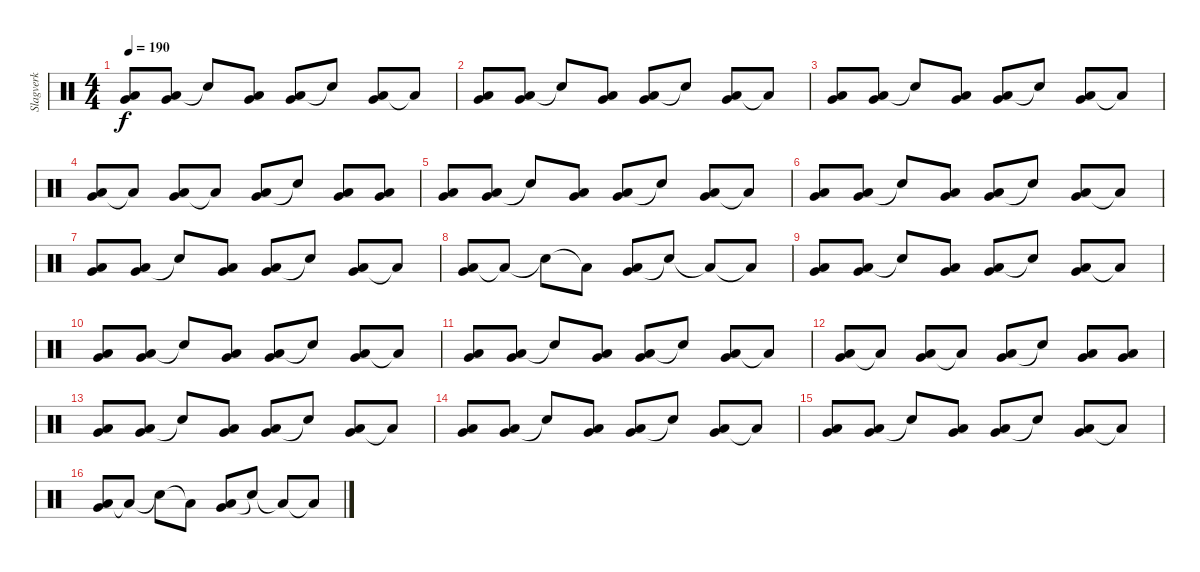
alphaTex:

\track ("Slagverk" "Slagverk") {instrument percussion}
\staff {score}
\articulation defaults
\ts (4 4)
\tempo 190
\clef neutral
\ks c
("Low Tom (hit)" "Very Low Tom (hit)").8{bu 60 dy f} ("Low Tom (hit)" "Very Low Tom (hit)").8{bu 60} "Snare (hit)"{t}.8 ("Low Tom (hit)" "Very Low Tom (hit)").8{bu 60} ("Low Tom (hit)" "Very Low Tom (hit)").8{bu 60} "Snare (hit)"{t}.8 ("Low Tom (hit)" "Very Low Tom (hit)").8{bu 60} "Low Floor Tom (hit)"{t}.8 |
("Low Tom (hit)" "Very Low Tom (hit)").8{bu 60} ("Low Tom (hit)" "Very Low Tom (hit)").8{bu 60} "Snare (hit)"{t}.8 ("Low Tom (hit)" "Very Low Tom (hit)").8{bu 60} ("Low Tom (hit)" "Very Low Tom (hit)").8{bu 60} "Snare (hit)"{t}.8 ("Low Tom (hit)" "Very Low Tom (hit)").8{bu 60} "Low Floor Tom (hit)"{t}.8 |
("Low Tom (hit)" "Very Low Tom (hit)").8{bu 60} ("Low Tom (hit)" "Very Low Tom (hit)").8{bu 60} "Snare (hit)"{t}.8 ("Low Tom (hit)" "Very Low Tom (hit)").8{bu 60} ("Low Tom (hit)" "Very Low Tom (hit)").8{bu 60} "Snare (hit)"{t}.8 ("Low Tom (hit)" "Very Low Tom (hit)").8{bu 60} "Low Floor Tom (hit)"{t}.8 |
("Very Low Tom (hit)" "Low Floor Tom (hit)").8{bu 60} "Low Floor Tom (hit)"{t}.8 ("Very Low Tom (hit)" "Low Floor Tom (hit)").8{bu 120} "Low Floor Tom (hit)"{t}.8 ("Very Low Tom (hit)" "Low Floor Tom (hit)").8{bu 60} "Snare (hit)"{t}.8 ("Very Low Tom (hit)" "Low Floor Tom (hit)").8{bu 60} ("Very Low Tom (hit)" "Low Floor Tom (hit)").8{bu 60} |
("Very Low Tom (hit)" "Low Floor Tom (hit)").8{bu 60} ("Very Low Tom (hit)" "Low Floor Tom (hit)").8{bu 60} "Snare (hit)"{t}.8 ("Very Low Tom (hit)" "Low Floor Tom (hit)").8{bu 60} ("Very Low Tom (hit)" "Low Floor Tom (hit)").8{bu 60} "Snare (hit)"{t}.8 ("Very Low Tom (hit)" "Low Floor Tom (hit)").8{bu 60} "Low Floor Tom (hit)"{t}.8 |
("Very Low Tom (hit)" "Low Floor Tom (hit)").8{bu 60} ("Very Low Tom (hit)" "Low Floor Tom (hit)").8{bu 60} "Snare (hit)"{t}.8 ("Very Low Tom (hit)" "Low Floor Tom (hit)").8{bu 60} ("Very Low Tom (hit)" "Low Floor Tom (hit)").8{bu 60} "Snare (hit)"{t}.8 ("Very Low Tom (hit)" "Low Floor Tom (hit)").8{bu 60} "Low Floor Tom (hit)"{t}.8 |
("Very Low Tom (hit)" "Low Floor Tom (hit)").8{bu 60} ("Very Low Tom (hit)" "Low Floor Tom (hit)").8{bu 60} "Snare (hit)"{t}.8 ("Very Low Tom (hit)" "Low Floor Tom (hit)").8{bu 60} ("Very Low Tom (hit)" "Low Floor Tom (hit)").8{bu 60} "Snare (hit)"{t}.8 ("Very Low Tom (hit)" "Low Floor Tom (hit)").8{bu 60} "Low Floor Tom (hit)"{t}.8 |
("Low Floor Tom (hit)" "Very Low Tom (hit)").8{bu 120} "Low Floor Tom (hit)"{t}.8 "Snare (hit)"{t}.8 "Low Floor Tom (hit)"{t}.8 ("Very Low Tom (hit)" "Low Tom (hit)").8{bu 240} "Snare (hit)"{t}.8 "Low Floor Tom (hit)"{t}.8 "Low Floor Tom (hit)"{t}.8 |
("Low Tom (hit)" "Very Low Tom (hit)").8{bu 60} ("Low Tom (hit)" "Very Low Tom (hit)").8{bu 60} "Snare (hit)"{t}.8 ("Low Tom (hit)" "Very Low Tom (hit)").8{bu 60} ("Low Tom (hit)" "Very Low Tom (hit)").8{bu 60} "Snare (hit)"{t}.8 ("Low Tom (hit)" "Very Low Tom (hit)").8{bu 60} "Low Floor Tom (hit)"{t}.8 |
("Low Tom (hit)" "Very Low Tom (hit)").8{bu 60} ("Low Tom (hit)" "Very Low Tom (hit)").8{bu 60} "Snare (hit)"{t}.8 ("Low Tom (hit)" "Very Low Tom (hit)").8{bu 60} ("Low Tom (hit)" "Very Low Tom (hit)").8{bu 60} "Snare (hit)"{t}.8 ("Low Tom (hit)" "Very Low Tom (hit)").8{bu 60} "Low Floor Tom (hit)"{t}.8 |
("Low Tom (hit)" "Very Low Tom (hit)").8{bu 60} ("Low Tom (hit)" "Very Low Tom (hit)").8{bu 60} "Snare (hit)"{t}.8 ("Low Tom (hit)" "Very Low Tom (hit)").8{bu 60} ("Low Tom (hit)" "Very Low Tom (hit)").8{bu 60} "Snare (hit)"{t}.8 ("Low Tom (hit)" "Very Low Tom (hit)").8{bu 60} "Low Floor Tom (hit)"{t}.8 |
("Very Low Tom (hit)" "Low Floor Tom (hit)").8{bu 60} "Low Floor Tom (hit)"{t}.8 ("Very Low Tom (hit)" "Low Floor Tom (hit)").8{bu 120} "Low Floor Tom (hit)"{t}.8 ("Very Low Tom (hit)" "Low Floor Tom (hit)").8{bu 60} "Snare (hit)"{t}.8 ("Very Low Tom (hit)" "Low Floor Tom (hit)").8{bu 60} ("Very Low Tom (hit)" "Low Floor Tom (hit)").8{bu 60} |
("Very Low Tom (hit)" "Low Floor Tom (hit)").8{bu 60} ("Very Low Tom (hit)" "Low Floor Tom (hit)").8{bu 60} "Snare (hit)"{t}.8 ("Very Low Tom (hit)" "Low Floor Tom (hit)").8{bu 60} ("Very Low Tom (hit)" "Low Floor Tom (hit)").8{bu 60} "Snare (hit)"{t}.8 ("Very Low Tom (hit)" "Low Floor Tom (hit)").8{bu 60} "Low Floor Tom (hit)"{t}.8 |
("Very Low Tom (hit)" "Low Floor Tom (hit)").8{bu 60} ("Very Low Tom (hit)" "Low Floor Tom (hit)").8{bu 60} "Snare (hit)"{t}.8 ("Very Low Tom (hit)" "Low Floor Tom (hit)").8{bu 60} ("Very Low Tom (hit)" "Low Floor Tom (hit)").8{bu 60} "Snare (hit)"{t}.8 ("Very Low Tom (hit)" "Low Floor Tom (hit)").8{bu 60} "Low Floor Tom (hit)"{t}.8 |
("Very Low Tom (hit)" "Low Floor Tom (hit)").8{bu 60} ("Very Low Tom (hit)" "Low Floor Tom (hit)").8{bu 60} "Snare (hit)"{t}.8 ("Very Low Tom (hit)" "Low Floor Tom (hit)").8{bu 60} ("Very Low Tom (hit)" "Low Floor Tom (hit)").8{bu 60} "Snare (hit)"{t}.8 ("Very Low Tom (hit)" "Low Floor Tom (hit)").8{bu 60} "Low Floor Tom (hit)"{t}.8 |
("Low Floor Tom (hit)" "Very Low Tom (hit)").8{bu 120} "Low Floor Tom (hit)"{t}.8 "Snare (hit)"{t}.8 "Low Floor Tom (hit)"{t}.8 ("Very Low Tom (hit)" "Low Tom (hit)").8{bu 240} "Snare (hit)"{t}.8 "Low Floor Tom (hit)"{t}.8 "Low Floor Tom (hit)"{t}.8
